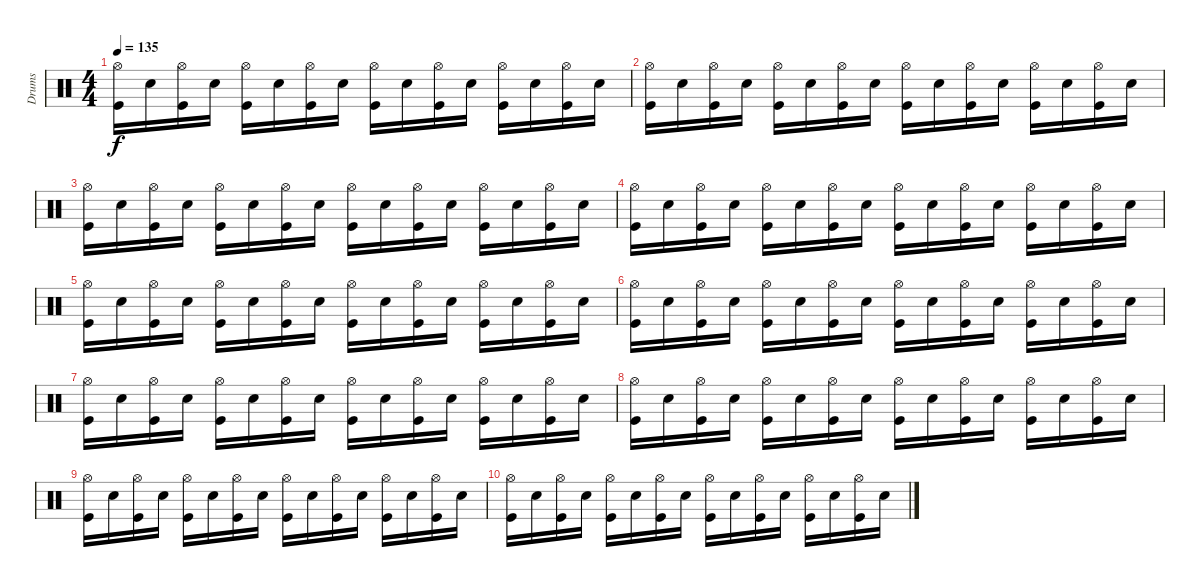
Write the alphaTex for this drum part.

\track ("Drums" "Drums") {instrument percussion}
\staff {score}
\articulation defaults
\ts (4 4)
\tempo 135
\clef neutral
\ks c
("Hi-Hat (open)" "Kick (hit)").16{dy f} "Snare (hit) 2".16 ("Hi-Hat (open)" "Kick (hit)").16 "Snare (hit) 2".16 ("Hi-Hat (open)" "Kick (hit)").16 "Snare (hit) 2".16 ("Hi-Hat (open)" "Kick (hit)").16 "Snare (hit) 2".16 ("Hi-Hat (open)" "Kick (hit)").16 "Snare (hit) 2".16 ("Hi-Hat (open)" "Kick (hit)").16 "Snare (hit) 2".16 ("Hi-Hat (open)" "Kick (hit)").16 "Snare (hit) 2".16 ("Hi-Hat (open)" "Kick (hit)").16 "Snare (hit) 2".16 |
("Hi-Hat (open)" "Kick (hit)").16 "Snare (hit) 2".16 ("Hi-Hat (open)" "Kick (hit)").16 "Snare (hit) 2".16 ("Hi-Hat (open)" "Kick (hit)").16 "Snare (hit) 2".16 ("Hi-Hat (open)" "Kick (hit)").16 "Snare (hit) 2".16 ("Hi-Hat (open)" "Kick (hit)").16 "Snare (hit) 2".16 ("Hi-Hat (open)" "Kick (hit)").16 "Snare (hit) 2".16 ("Hi-Hat (open)" "Kick (hit)").16 "Snare (hit) 2".16 ("Hi-Hat (open)" "Kick (hit)").16 "Snare (hit) 2".16 |
("Hi-Hat (open)" "Kick (hit)").16 "Snare (hit) 2".16 ("Hi-Hat (open)" "Kick (hit)").16 "Snare (hit) 2".16 ("Hi-Hat (open)" "Kick (hit)").16 "Snare (hit) 2".16 ("Hi-Hat (open)" "Kick (hit)").16 "Snare (hit) 2".16 ("Hi-Hat (open)" "Kick (hit)").16 "Snare (hit) 2".16 ("Hi-Hat (open)" "Kick (hit)").16 "Snare (hit) 2".16 ("Hi-Hat (open)" "Kick (hit)").16 "Snare (hit) 2".16 ("Hi-Hat (open)" "Kick (hit)").16 "Snare (hit) 2".16 |
("Hi-Hat (open)" "Kick (hit)").16 "Snare (hit) 2".16 ("Hi-Hat (open)" "Kick (hit)").16 "Snare (hit) 2".16 ("Hi-Hat (open)" "Kick (hit)").16 "Snare (hit) 2".16 ("Hi-Hat (open)" "Kick (hit)").16 "Snare (hit) 2".16 ("Hi-Hat (open)" "Kick (hit)").16 "Snare (hit) 2".16 ("Hi-Hat (open)" "Kick (hit)").16 "Snare (hit) 2".16 ("Hi-Hat (open)" "Kick (hit)").16 "Snare (hit) 2".16 ("Hi-Hat (open)" "Kick (hit)").16 "Snare (hit) 2".16 |
("Hi-Hat (open)" "Kick (hit)").16 "Snare (hit) 2".16 ("Hi-Hat (open)" "Kick (hit)").16 "Snare (hit) 2".16 ("Hi-Hat (open)" "Kick (hit)").16 "Snare (hit) 2".16 ("Hi-Hat (open)" "Kick (hit)").16 "Snare (hit) 2".16 ("Hi-Hat (open)" "Kick (hit)").16 "Snare (hit) 2".16 ("Hi-Hat (open)" "Kick (hit)").16 "Snare (hit) 2".16 ("Hi-Hat (open)" "Kick (hit)").16 "Snare (hit) 2".16 ("Hi-Hat (open)" "Kick (hit)").16 "Snare (hit) 2".16 |
("Hi-Hat (open)" "Kick (hit)").16 "Snare (hit) 2".16 ("Hi-Hat (open)" "Kick (hit)").16 "Snare (hit) 2".16 ("Hi-Hat (open)" "Kick (hit)").16 "Snare (hit) 2".16 ("Hi-Hat (open)" "Kick (hit)").16 "Snare (hit) 2".16 ("Hi-Hat (open)" "Kick (hit)").16 "Snare (hit) 2".16 ("Hi-Hat (open)" "Kick (hit)").16 "Snare (hit) 2".16 ("Hi-Hat (open)" "Kick (hit)").16 "Snare (hit) 2".16 ("Hi-Hat (open)" "Kick (hit)").16 "Snare (hit) 2".16 |
("Hi-Hat (open)" "Kick (hit)").16 "Snare (hit) 2".16 ("Hi-Hat (open)" "Kick (hit)").16 "Snare (hit) 2".16 ("Hi-Hat (open)" "Kick (hit)").16 "Snare (hit) 2".16 ("Hi-Hat (open)" "Kick (hit)").16 "Snare (hit) 2".16 ("Hi-Hat (open)" "Kick (hit)").16 "Snare (hit) 2".16 ("Hi-Hat (open)" "Kick (hit)").16 "Snare (hit) 2".16 ("Hi-Hat (open)" "Kick (hit)").16 "Snare (hit) 2".16 ("Hi-Hat (open)" "Kick (hit)").16 "Snare (hit) 2".16 |
("Hi-Hat (open)" "Kick (hit)").16 "Snare (hit) 2".16 ("Hi-Hat (open)" "Kick (hit)").16 "Snare (hit) 2".16 ("Hi-Hat (open)" "Kick (hit)").16 "Snare (hit) 2".16 ("Hi-Hat (open)" "Kick (hit)").16 "Snare (hit) 2".16 ("Hi-Hat (open)" "Kick (hit)").16 "Snare (hit) 2".16 ("Hi-Hat (open)" "Kick (hit)").16 "Snare (hit) 2".16 ("Hi-Hat (open)" "Kick (hit)").16 "Snare (hit) 2".16 ("Hi-Hat (open)" "Kick (hit)").16 "Snare (hit) 2".16 |
("Hi-Hat (open)" "Kick (hit)").16 "Snare (hit) 2".16 ("Hi-Hat (open)" "Kick (hit)").16 "Snare (hit) 2".16 ("Hi-Hat (open)" "Kick (hit)").16 "Snare (hit) 2".16 ("Hi-Hat (open)" "Kick (hit)").16 "Snare (hit) 2".16 ("Hi-Hat (open)" "Kick (hit)").16 "Snare (hit) 2".16 ("Hi-Hat (open)" "Kick (hit)").16 "Snare (hit) 2".16 ("Hi-Hat (open)" "Kick (hit)").16 "Snare (hit) 2".16 ("Hi-Hat (open)" "Kick (hit)").16 "Snare (hit) 2".16 |
("Hi-Hat (open)" "Kick (hit)").16 "Snare (hit) 2".16 ("Hi-Hat (open)" "Kick (hit)").16 "Snare (hit) 2".16 ("Hi-Hat (open)" "Kick (hit)").16 "Snare (hit) 2".16 ("Hi-Hat (open)" "Kick (hit)").16 "Snare (hit) 2".16 ("Hi-Hat (open)" "Kick (hit)").16 "Snare (hit) 2".16 ("Hi-Hat (open)" "Kick (hit)").16 "Snare (hit) 2".16 ("Hi-Hat (open)" "Kick (hit)").16 "Snare (hit) 2".16 ("Hi-Hat (open)" "Kick (hit)").16 "Snare (hit) 2".16
